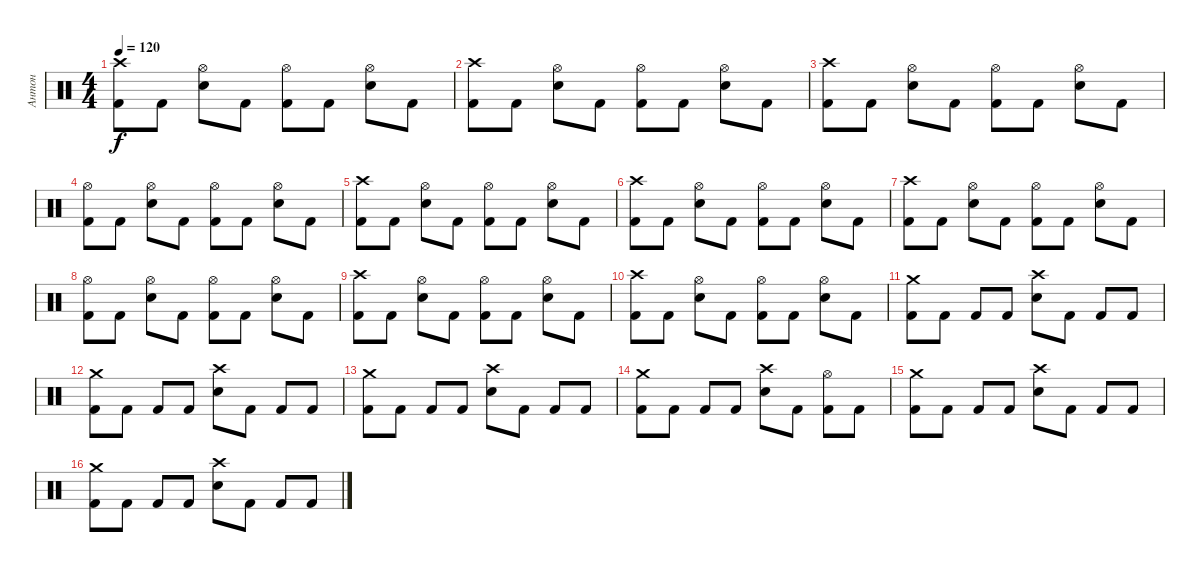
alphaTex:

\track ("Антон" "Антон") {instrument percussion}
\staff {score}
\articulation defaults
\ts (4 4)
\tempo 120
\clef neutral
\ks c
("Crash high (hit)" "Kick (hit) 2").8{dy f} "Kick (hit) 2".8 ("Hi-Hat (open)" "Electric Snare (hit)").8 "Kick (hit) 2".8 ("Hi-Hat (open)" "Kick (hit) 2").8 "Kick (hit) 2".8 ("Hi-Hat (open)" "Electric Snare (hit)").8 "Kick (hit) 2".8 |
("Crash high (hit)" "Kick (hit) 2").8 "Kick (hit) 2".8 ("Hi-Hat (open)" "Electric Snare (hit)").8 "Kick (hit) 2".8 ("Hi-Hat (open)" "Kick (hit) 2").8 "Kick (hit) 2".8 ("Hi-Hat (open)" "Electric Snare (hit)").8 "Kick (hit) 2".8 |
("Crash high (hit)" "Kick (hit) 2").8 "Kick (hit) 2".8 ("Hi-Hat (open)" "Electric Snare (hit)").8 "Kick (hit) 2".8 ("Hi-Hat (open)" "Kick (hit) 2").8 "Kick (hit) 2".8 ("Hi-Hat (open)" "Electric Snare (hit)").8 "Kick (hit) 2".8 |
("Hi-Hat (open)" "Kick (hit) 2").8 "Kick (hit) 2".8 ("Hi-Hat (open)" "Electric Snare (hit)").8 "Kick (hit) 2".8 ("Hi-Hat (open)" "Kick (hit) 2").8 "Kick (hit) 2".8 ("Hi-Hat (open)" "Electric Snare (hit)").8 "Kick (hit) 2".8 |
("Crash high (hit)" "Kick (hit) 2").8 "Kick (hit) 2".8 ("Hi-Hat (open)" "Electric Snare (hit)").8 "Kick (hit) 2".8 ("Hi-Hat (open)" "Kick (hit) 2").8 "Kick (hit) 2".8 ("Hi-Hat (open)" "Electric Snare (hit)").8 "Kick (hit) 2".8 |
("Crash high (hit)" "Kick (hit) 2").8 "Kick (hit) 2".8 ("Hi-Hat (open)" "Electric Snare (hit)").8 "Kick (hit) 2".8 ("Hi-Hat (open)" "Kick (hit) 2").8 "Kick (hit) 2".8 ("Hi-Hat (open)" "Electric Snare (hit)").8 "Kick (hit) 2".8 |
("Crash high (hit)" "Kick (hit) 2").8 "Kick (hit) 2".8 ("Hi-Hat (open)" "Electric Snare (hit)").8 "Kick (hit) 2".8 ("Hi-Hat (open)" "Kick (hit) 2").8 "Kick (hit) 2".8 ("Hi-Hat (open)" "Electric Snare (hit)").8 "Kick (hit) 2".8 |
("Hi-Hat (open)" "Kick (hit) 2").8 "Kick (hit) 2".8 ("Hi-Hat (open)" "Electric Snare (hit)").8 "Kick (hit) 2".8 ("Hi-Hat (open)" "Kick (hit) 2").8 "Kick (hit) 2".8 ("Hi-Hat (open)" "Electric Snare (hit)").8 "Kick (hit) 2".8 |
("Crash high (hit)" "Kick (hit) 2").8 "Kick (hit) 2".8 ("Hi-Hat (open)" "Electric Snare (hit)").8 "Kick (hit) 2".8 ("Hi-Hat (open)" "Kick (hit) 2").8 "Kick (hit) 2".8 ("Hi-Hat (open)" "Electric Snare (hit)").8 "Kick (hit) 2".8 |
("Crash high (hit)" "Kick (hit) 2").8 "Kick (hit) 2".8 ("Hi-Hat (open)" "Electric Snare (hit)").8 "Kick (hit) 2".8 ("Hi-Hat (open)" "Kick (hit) 2").8 "Kick (hit) 2".8 ("Hi-Hat (open)" "Electric Snare (hit)").8 "Kick (hit) 2".8 |
("Crash medium (hit)" "Kick (hit) 2").8 "Kick (hit) 2".8 "Kick (hit) 2".8 "Kick (hit) 2".8 ("Crash high (hit)" "Electric Snare (hit)").8 "Kick (hit) 2".8 "Kick (hit) 2".8 "Kick (hit) 2".8 |
("Crash medium (hit)" "Kick (hit) 2").8 "Kick (hit) 2".8 "Kick (hit) 2".8 "Kick (hit) 2".8 ("Crash high (hit)" "Electric Snare (hit)").8 "Kick (hit) 2".8 "Kick (hit) 2".8 "Kick (hit) 2".8 |
("Crash medium (hit)" "Kick (hit) 2").8 "Kick (hit) 2".8 "Kick (hit) 2".8 "Kick (hit) 2".8 ("Crash high (hit)" "Electric Snare (hit)").8 "Kick (hit) 2".8 "Kick (hit) 2".8 "Kick (hit) 2".8 |
("Crash medium (hit)" "Kick (hit) 2").8 "Kick (hit) 2".8 "Kick (hit) 2".8 "Kick (hit) 2".8 ("Crash high (hit)" "Electric Snare (hit)").8 "Kick (hit) 2".8 ("Hi-Hat (open)" "Kick (hit) 2").8 "Kick (hit) 2".8 |
("Crash medium (hit)" "Kick (hit) 2").8 "Kick (hit) 2".8 "Kick (hit) 2".8 "Kick (hit) 2".8 ("Crash high (hit)" "Electric Snare (hit)").8 "Kick (hit) 2".8 "Kick (hit) 2".8 "Kick (hit) 2".8 |
("Crash medium (hit)" "Kick (hit) 2").8 "Kick (hit) 2".8 "Kick (hit) 2".8 "Kick (hit) 2".8 ("Crash high (hit)" "Electric Snare (hit)").8 "Kick (hit) 2".8 "Kick (hit) 2".8 "Kick (hit) 2".8
